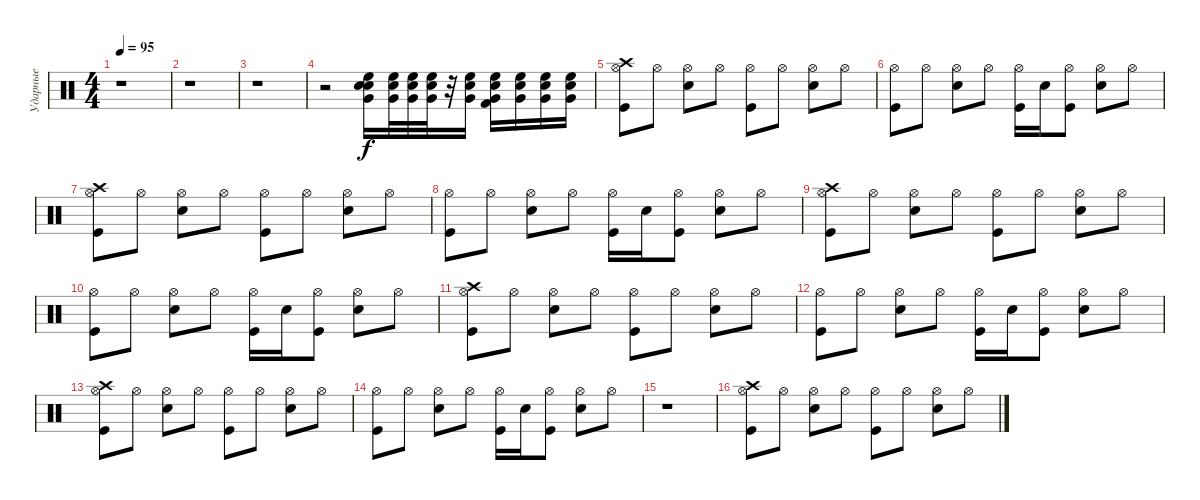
\track ("Ударные" "Ударные") {instrument percussion}
\staff {score}
\articulation defaults
\ts (4 4)
\tempo 95
\clef neutral
\ks c
r.1{dy f} |
r.1 |
r.1 |
r.2 ("High Floor Tom (hit)" "Electric Snare (hit)" "Snare (hit) 2" "Very Low Tom (hit)").16 ("High Floor Tom (hit)" "Electric Snare (hit)" "Very Low Tom (hit)").32 ("High Floor Tom (hit)" "Electric Snare (hit)" "Very Low Tom (hit)").32 ("High Floor Tom (hit)" "Electric Snare (hit)" "Very Low Tom (hit)").32 r.32 ("High Floor Tom (hit)" "Electric Snare (hit)" "Very Low Tom (hit)").16 ("High Floor Tom (hit)" "Electric Snare (hit)" "Kick (hit) 2" "Very Low Tom (hit)").16 ("High Floor Tom (hit)" "Electric Snare (hit)" "Very Low Tom (hit)").16 ("High Floor Tom (hit)" "Electric Snare (hit)" "Very Low Tom (hit)").16 ("High Floor Tom (hit)" "Electric Snare (hit)" "Very Low Tom (hit)").16 |
("Kick (hit)" "Hi-Hat (open)" "Crash high (hit)").8 "Hi-Hat (open)".8 ("Snare (hit) 2" "Hi-Hat (open)").8 "Hi-Hat (open)".8 ("Kick (hit)" "Hi-Hat (open)").8 "Hi-Hat (open)".8 ("Snare (hit) 2" "Hi-Hat (open)").8 "Hi-Hat (open)".8 |
("Kick (hit)" "Hi-Hat (open)").8 "Hi-Hat (open)".8 ("Snare (hit) 2" "Hi-Hat (open)").8 "Hi-Hat (open)".8 ("Kick (hit)" "Hi-Hat (open)").16 "Snare (hit) 2".16 ("Kick (hit)" "Hi-Hat (open)").8 ("Snare (hit) 2" "Hi-Hat (open)").8 "Hi-Hat (open)".8 |
("Kick (hit)" "Hi-Hat (open)" "Crash high (hit)").8 "Hi-Hat (open)".8 ("Snare (hit) 2" "Hi-Hat (open)").8 "Hi-Hat (open)".8 ("Kick (hit)" "Hi-Hat (open)").8 "Hi-Hat (open)".8 ("Snare (hit) 2" "Hi-Hat (open)").8 "Hi-Hat (open)".8 |
("Kick (hit)" "Hi-Hat (open)").8 "Hi-Hat (open)".8 ("Snare (hit) 2" "Hi-Hat (open)").8 "Hi-Hat (open)".8 ("Kick (hit)" "Hi-Hat (open)").16 "Snare (hit) 2".16 ("Kick (hit)" "Hi-Hat (open)").8 ("Snare (hit) 2" "Hi-Hat (open)").8 "Hi-Hat (open)".8 |
("Kick (hit)" "Hi-Hat (open)" "Crash high (hit)").8 "Hi-Hat (open)".8 ("Snare (hit) 2" "Hi-Hat (open)").8 "Hi-Hat (open)".8 ("Kick (hit)" "Hi-Hat (open)").8 "Hi-Hat (open)".8 ("Snare (hit) 2" "Hi-Hat (open)").8 "Hi-Hat (open)".8 |
("Kick (hit)" "Hi-Hat (open)").8 "Hi-Hat (open)".8 ("Snare (hit) 2" "Hi-Hat (open)").8 "Hi-Hat (open)".8 ("Kick (hit)" "Hi-Hat (open)").16 "Snare (hit) 2".16 ("Kick (hit)" "Hi-Hat (open)").8 ("Snare (hit) 2" "Hi-Hat (open)").8 "Hi-Hat (open)".8 |
("Kick (hit)" "Hi-Hat (open)" "Crash high (hit)").8 "Hi-Hat (open)".8 ("Snare (hit) 2" "Hi-Hat (open)").8 "Hi-Hat (open)".8 ("Kick (hit)" "Hi-Hat (open)").8 "Hi-Hat (open)".8 ("Snare (hit) 2" "Hi-Hat (open)").8 "Hi-Hat (open)".8 |
("Kick (hit)" "Hi-Hat (open)").8 "Hi-Hat (open)".8 ("Snare (hit) 2" "Hi-Hat (open)").8 "Hi-Hat (open)".8 ("Kick (hit)" "Hi-Hat (open)").16 "Snare (hit) 2".16 ("Kick (hit)" "Hi-Hat (open)").8 ("Snare (hit) 2" "Hi-Hat (open)").8 "Hi-Hat (open)".8 |
("Kick (hit)" "Hi-Hat (open)" "Crash high (hit)").8 "Hi-Hat (open)".8 ("Snare (hit) 2" "Hi-Hat (open)").8 "Hi-Hat (open)".8 ("Kick (hit)" "Hi-Hat (open)").8 "Hi-Hat (open)".8 ("Snare (hit) 2" "Hi-Hat (open)").8 "Hi-Hat (open)".8 |
("Kick (hit)" "Hi-Hat (open)").8 "Hi-Hat (open)".8 ("Snare (hit) 2" "Hi-Hat (open)").8 "Hi-Hat (open)".8 ("Kick (hit)" "Hi-Hat (open)").16 "Snare (hit) 2".16 ("Kick (hit)" "Hi-Hat (open)").8 ("Snare (hit) 2" "Hi-Hat (open)").8 "Hi-Hat (open)".8 |
r.1 |
("Kick (hit)" "Hi-Hat (open)" "Crash high (hit)").8 "Hi-Hat (open)".8 ("Snare (hit) 2" "Hi-Hat (open)").8 "Hi-Hat (open)".8 ("Kick (hit)" "Hi-Hat (open)").8 "Hi-Hat (open)".8 ("Snare (hit) 2" "Hi-Hat (open)").8 "Hi-Hat (open)".8
